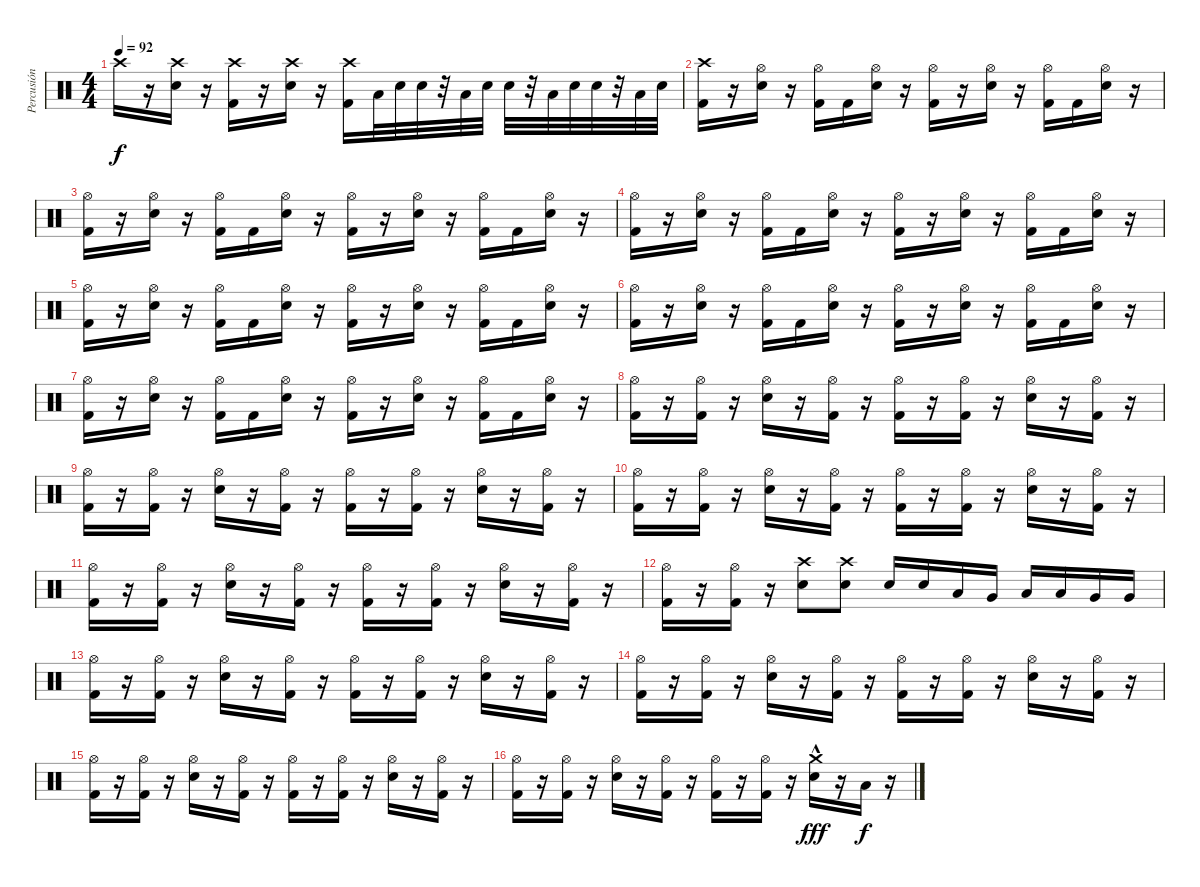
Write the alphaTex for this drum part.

\track ("Percusión" "Percusión") {instrument percussion}
\staff {score}
\articulation defaults
\ts (4 4)
\tempo 92
\clef neutral
\ks c "Crash high (hit)"{t}.16{dy f}
r.16 ("Crash high (hit)" "Electric Snare (hit)").16 r.16 ("Crash high (hit)" "Kick (hit) 2").16 r.16 ("Crash high (hit)" "Electric Snare (hit)").16 r.16 ("Crash high (hit)" "Kick (hit) 2").16 "Low Tom (hit)".32 "Electric Snare (hit)".32 "Electric Snare (hit)".32 r.32 "Low Tom (hit)".32 "Electric Snare (hit)".32 "Electric Snare (hit)".32 r.32 "Low Tom (hit)".32 "Electric Snare (hit)".32 "Electric Snare (hit)".32 r.32 "Low Tom (hit)".32 "Electric Snare (hit)".32 |
("Crash high (hit)" "Kick (hit) 2").16 r.16 ("Hi-Hat (open)" "Electric Snare (hit)").16 r.16 ("Hi-Hat (open)" "Kick (hit) 2").16 "Kick (hit) 2".16 ("Hi-Hat (open)" "Electric Snare (hit)").16 r.16 ("Hi-Hat (open)" "Kick (hit) 2").16 r.16 ("Hi-Hat (open)" "Electric Snare (hit)").16 r.16 ("Hi-Hat (open)" "Kick (hit) 2").16 "Kick (hit) 2".16 ("Hi-Hat (open)" "Electric Snare (hit)").16 r.16 |
("Hi-Hat (open)" "Kick (hit) 2").16 r.16 ("Hi-Hat (open)" "Electric Snare (hit)").16 r.16 ("Hi-Hat (open)" "Kick (hit) 2").16 "Kick (hit) 2".16 ("Hi-Hat (open)" "Electric Snare (hit)").16 r.16 ("Hi-Hat (open)" "Kick (hit) 2").16 r.16 ("Hi-Hat (open)" "Electric Snare (hit)").16 r.16 ("Hi-Hat (open)" "Kick (hit) 2").16 "Kick (hit) 2".16 ("Hi-Hat (open)" "Electric Snare (hit)").16 r.16 |
("Hi-Hat (open)" "Kick (hit) 2").16 r.16 ("Hi-Hat (open)" "Electric Snare (hit)").16 r.16 ("Hi-Hat (open)" "Kick (hit) 2").16 "Kick (hit) 2".16 ("Hi-Hat (open)" "Electric Snare (hit)").16 r.16 ("Hi-Hat (open)" "Kick (hit) 2").16 r.16 ("Hi-Hat (open)" "Electric Snare (hit)").16 r.16 ("Hi-Hat (open)" "Kick (hit) 2").16 "Kick (hit) 2".16 ("Hi-Hat (open)" "Electric Snare (hit)").16 r.16 |
("Hi-Hat (open)" "Kick (hit) 2").16 r.16 ("Hi-Hat (open)" "Electric Snare (hit)").16 r.16 ("Hi-Hat (open)" "Kick (hit) 2").16 "Kick (hit) 2".16 ("Hi-Hat (open)" "Electric Snare (hit)").16 r.16 ("Hi-Hat (open)" "Kick (hit) 2").16 r.16 ("Hi-Hat (open)" "Electric Snare (hit)").16 r.16 ("Hi-Hat (open)" "Kick (hit) 2").16 "Kick (hit) 2".16 ("Hi-Hat (open)" "Electric Snare (hit)").16 r.16 |
("Hi-Hat (open)" "Kick (hit) 2").16 r.16 ("Hi-Hat (open)" "Electric Snare (hit)").16 r.16 ("Hi-Hat (open)" "Kick (hit) 2").16 "Kick (hit) 2".16 ("Hi-Hat (open)" "Electric Snare (hit)").16 r.16 ("Hi-Hat (open)" "Kick (hit) 2").16 r.16 ("Hi-Hat (open)" "Electric Snare (hit)").16 r.16 ("Hi-Hat (open)" "Kick (hit) 2").16 "Kick (hit) 2".16 ("Hi-Hat (open)" "Electric Snare (hit)").16 r.16 |
("Hi-Hat (open)" "Kick (hit) 2").16 r.16 ("Hi-Hat (open)" "Electric Snare (hit)").16 r.16 ("Hi-Hat (open)" "Kick (hit) 2").16 "Kick (hit) 2".16 ("Hi-Hat (open)" "Electric Snare (hit)").16 r.16 ("Hi-Hat (open)" "Kick (hit) 2").16 r.16 ("Hi-Hat (open)" "Electric Snare (hit)").16 r.16 ("Hi-Hat (open)" "Kick (hit) 2").16 "Kick (hit) 2".16 ("Hi-Hat (open)" "Electric Snare (hit)").16 r.16 |
("Hi-Hat (open)" "Kick (hit) 2").16 r.16 ("Hi-Hat (open)" "Kick (hit) 2").16 r.16 ("Hi-Hat (open)" "Electric Snare (hit)").16 r.16 ("Hi-Hat (open)" "Kick (hit) 2").16 r.16 ("Hi-Hat (open)" "Kick (hit) 2").16 r.16 ("Hi-Hat (open)" "Kick (hit) 2").16 r.16 ("Hi-Hat (open)" "Electric Snare (hit)").16 r.16 ("Hi-Hat (open)" "Kick (hit) 2").16 r.16 |
("Hi-Hat (open)" "Kick (hit) 2").16 r.16 ("Hi-Hat (open)" "Kick (hit) 2").16 r.16 ("Hi-Hat (open)" "Electric Snare (hit)").16 r.16 ("Hi-Hat (open)" "Kick (hit) 2").16 r.16 ("Hi-Hat (open)" "Kick (hit) 2").16 r.16 ("Hi-Hat (open)" "Kick (hit) 2").16 r.16 ("Hi-Hat (open)" "Electric Snare (hit)").16 r.16 ("Hi-Hat (open)" "Kick (hit) 2").16 r.16 |
("Hi-Hat (open)" "Kick (hit) 2").16 r.16 ("Hi-Hat (open)" "Kick (hit) 2").16 r.16 ("Hi-Hat (open)" "Electric Snare (hit)").16 r.16 ("Hi-Hat (open)" "Kick (hit) 2").16 r.16 ("Hi-Hat (open)" "Kick (hit) 2").16 r.16 ("Hi-Hat (open)" "Kick (hit) 2").16 r.16 ("Hi-Hat (open)" "Electric Snare (hit)").16 r.16 ("Hi-Hat (open)" "Kick (hit) 2").16 r.16 |
("Hi-Hat (open)" "Kick (hit) 2").16 r.16 ("Hi-Hat (open)" "Kick (hit) 2").16 r.16 ("Hi-Hat (open)" "Electric Snare (hit)").16 r.16 ("Hi-Hat (open)" "Kick (hit) 2").16 r.16 ("Hi-Hat (open)" "Kick (hit) 2").16 r.16 ("Hi-Hat (open)" "Kick (hit) 2").16 r.16 ("Hi-Hat (open)" "Electric Snare (hit)").16 r.16 ("Hi-Hat (open)" "Kick (hit) 2").16 r.16 |
("Hi-Hat (open)" "Kick (hit) 2").16 r.16 ("Hi-Hat (open)" "Kick (hit) 2").16 r.16 ("Crash high (hit)" "Electric Snare (hit)").8 ("Crash high (hit)" "Electric Snare (hit)").8 "Electric Snare (hit)".16 "Electric Snare (hit)".16 "Low Tom (hit)".16 "Very Low Tom (hit)".16 "Low Floor Tom (hit)".16 "Low Floor Tom (hit)".16 "Very Low Tom (hit)".16 "Very Low Tom (hit)".16 |
("Hi-Hat (open)" "Kick (hit) 2").16 r.16 ("Hi-Hat (open)" "Kick (hit) 2").16 r.16 ("Hi-Hat (open)" "Electric Snare (hit)").16 r.16 ("Hi-Hat (open)" "Kick (hit) 2").16 r.16 ("Hi-Hat (open)" "Kick (hit) 2").16 r.16 ("Hi-Hat (open)" "Kick (hit) 2").16 r.16 ("Hi-Hat (open)" "Electric Snare (hit)").16 r.16 ("Hi-Hat (open)" "Kick (hit) 2").16 r.16 |
("Hi-Hat (open)" "Kick (hit) 2").16 r.16 ("Hi-Hat (open)" "Kick (hit) 2").16 r.16 ("Hi-Hat (open)" "Electric Snare (hit)").16 r.16 ("Hi-Hat (open)" "Kick (hit) 2").16 r.16 ("Hi-Hat (open)" "Kick (hit) 2").16 r.16 ("Hi-Hat (open)" "Kick (hit) 2").16 r.16 ("Hi-Hat (open)" "Electric Snare (hit)").16 r.16 ("Hi-Hat (open)" "Kick (hit) 2").16 r.16 |
("Hi-Hat (open)" "Kick (hit) 2").16 r.16 ("Hi-Hat (open)" "Kick (hit) 2").16 r.16 ("Hi-Hat (open)" "Electric Snare (hit)").16 r.16 ("Hi-Hat (open)" "Kick (hit) 2").16 r.16 ("Hi-Hat (open)" "Kick (hit) 2").16 r.16 ("Hi-Hat (open)" "Kick (hit) 2").16 r.16 ("Hi-Hat (open)" "Electric Snare (hit)").16 r.16 ("Hi-Hat (open)" "Kick (hit) 2").16 r.16 |
("Hi-Hat (open)" "Kick (hit) 2").16 r.16 ("Hi-Hat (open)" "Kick (hit) 2").16 r.16 ("Hi-Hat (open)" "Electric Snare (hit)").16 r.16 ("Hi-Hat (open)" "Kick (hit) 2").16 r.16 ("Hi-Hat (open)" "Kick (hit) 2").16 r.16 ("Hi-Hat (open)" "Kick (hit) 2").16 r.16 ("Crash medium (hit)" "Electric Snare (hit)"{hac}).16{dy fff} r.16 "Low Tom (hit)".16{dy f} r.16
